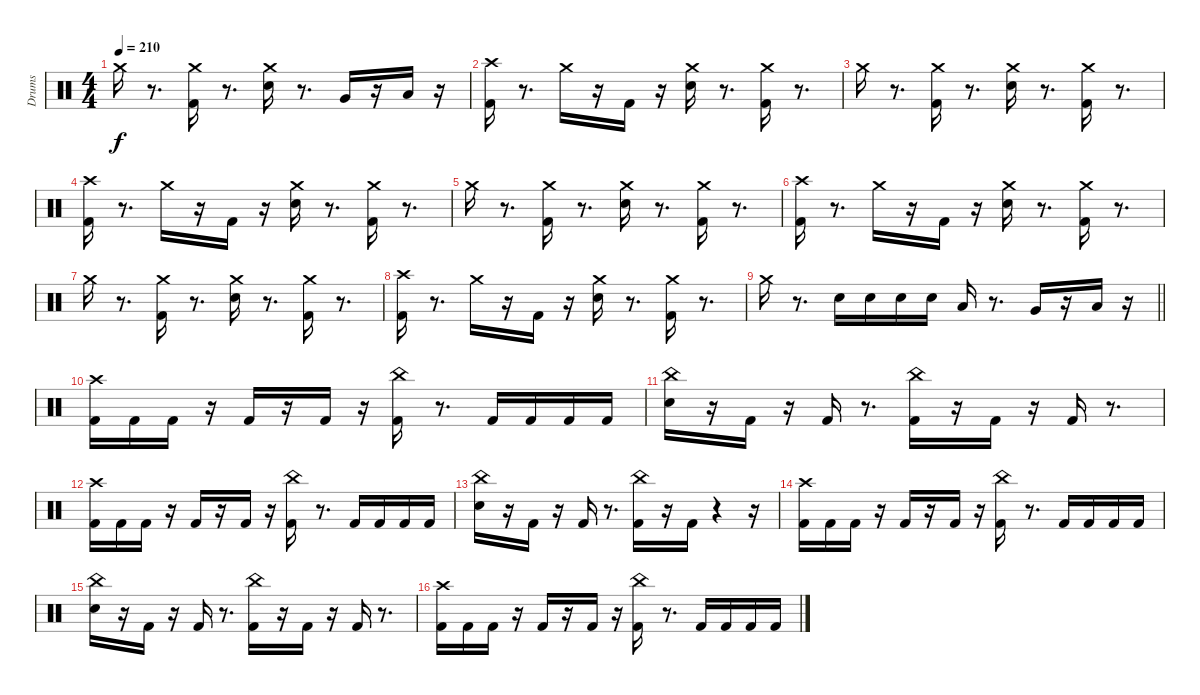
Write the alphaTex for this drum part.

\track ("Drums" "Drums") {instrument percussion}
\staff {score}
\articulation defaults
\ts (4 4)
\tempo 210
\clef neutral
\ks c "Crash medium (hit)".16{dy f}
r.8{d} ("Kick (hit) 2" "Crash medium (hit)").16 r.8{d} ("Snare (hit) 2" "Crash medium (hit)").16 r.8{d} "Very Low Tom (hit)".16 r.16 "Low Floor Tom (hit)".16 r.16 |
("Kick (hit) 2" "Crash high (hit)").16 r.8{d} "Crash medium (hit)".16 r.16 "Kick (hit) 2".16 r.16 ("Snare (hit) 2" "Crash medium (hit)").16 r.8{d} ("Kick (hit) 2" "Crash medium (hit)").16 r.8{d} |
"Crash medium (hit)".16 r.8{d} ("Kick (hit) 2" "Crash medium (hit)").16 r.8{d} ("Snare (hit) 2" "Crash medium (hit)").16 r.8{d} ("Kick (hit) 2" "Crash medium (hit)").16 r.8{d} |
("Kick (hit) 2" "Crash high (hit)").16 r.8{d} "Crash medium (hit)".16 r.16 "Kick (hit) 2".16 r.16 ("Snare (hit) 2" "Crash medium (hit)").16 r.8{d} ("Kick (hit) 2" "Crash medium (hit)").16 r.8{d} |
"Crash medium (hit)".16 r.8{d} ("Kick (hit) 2" "Crash medium (hit)").16 r.8{d} ("Snare (hit) 2" "Crash medium (hit)").16 r.8{d} ("Kick (hit) 2" "Crash medium (hit)").16 r.8{d} |
("Kick (hit) 2" "Crash high (hit)").16 r.8{d} "Crash medium (hit)".16 r.16 "Kick (hit) 2".16 r.16 ("Snare (hit) 2" "Crash medium (hit)").16 r.8{d} ("Kick (hit) 2" "Crash medium (hit)").16 r.8{d} |
"Crash medium (hit)".16 r.8{d} ("Kick (hit) 2" "Crash medium (hit)").16 r.8{d} ("Snare (hit) 2" "Crash medium (hit)").16 r.8{d} ("Kick (hit) 2" "Crash medium (hit)").16 r.8{d} |
("Kick (hit) 2" "Crash high (hit)").16 r.8{d} "Crash medium (hit)".16 r.16 "Kick (hit) 2".16 r.16 ("Snare (hit) 2" "Crash medium (hit)").16 r.8{d} ("Kick (hit) 2" "Crash medium (hit)").16 r.8{d} |
\barLineRight lightlight "Crash medium (hit)".16
r.8{d} "Snare (hit) 2".16 "Snare (hit) 2".16 "Snare (hit) 2".16 "Snare (hit) 2".16 "Low Tom (hit)".16 r.8{d} "Very Low Tom (hit)".16 r.16 "Low Floor Tom (hit)".16 r.16 |
\section ("" " ")
("Kick (hit) 2" "Crash high (hit)").16 "Kick (hit) 2".16 "Kick (hit) 2".16 r.16 "Kick (hit) 2".16 r.16 "Kick (hit) 2".16 r.16 ("Kick (hit) 2" "China (hit)").16 r.8{d} "Kick (hit) 2".16 "Kick (hit) 2".16 "Kick (hit) 2".16 "Kick (hit) 2".16 |
("Snare (hit) 2" "China (hit)").16 r.16 "Kick (hit) 2".16 r.16 "Kick (hit) 2".16 r.8{d} ("Kick (hit) 2" "China (hit)").16 r.16 "Kick (hit) 2".16 r.16 "Kick (hit) 2".16 r.8{d} |
("Kick (hit) 2" "Crash high (hit)").16 "Kick (hit) 2".16 "Kick (hit) 2".16 r.16 "Kick (hit) 2".16 r.16 "Kick (hit) 2".16 r.16 ("Kick (hit) 2" "China (hit)").16 r.8{d} "Kick (hit) 2".16 "Kick (hit) 2".16 "Kick (hit) 2".16 "Kick (hit) 2".16 |
("Snare (hit) 2" "China (hit)").16 r.16 "Kick (hit) 2".16 r.16 "Kick (hit) 2".16 r.8{d} ("Kick (hit) 2" "China (hit)").16 r.16 "Kick (hit) 2".16 r.4 r.16 |
("Kick (hit) 2" "Crash high (hit)").16 "Kick (hit) 2".16 "Kick (hit) 2".16 r.16 "Kick (hit) 2".16 r.16 "Kick (hit) 2".16 r.16 ("Kick (hit) 2" "China (hit)").16 r.8{d} "Kick (hit) 2".16 "Kick (hit) 2".16 "Kick (hit) 2".16 "Kick (hit) 2".16 |
("Snare (hit) 2" "China (hit)").16 r.16 "Kick (hit) 2".16 r.16 "Kick (hit) 2".16 r.8{d} ("Kick (hit) 2" "China (hit)").16 r.16 "Kick (hit) 2".16 r.16 "Kick (hit) 2".16 r.8{d} |
("Kick (hit) 2" "Crash high (hit)").16 "Kick (hit) 2".16 "Kick (hit) 2".16 r.16 "Kick (hit) 2".16 r.16 "Kick (hit) 2".16 r.16 ("Kick (hit) 2" "China (hit)").16 r.8{d} "Kick (hit) 2".16 "Kick (hit) 2".16 "Kick (hit) 2".16 "Kick (hit) 2".16
